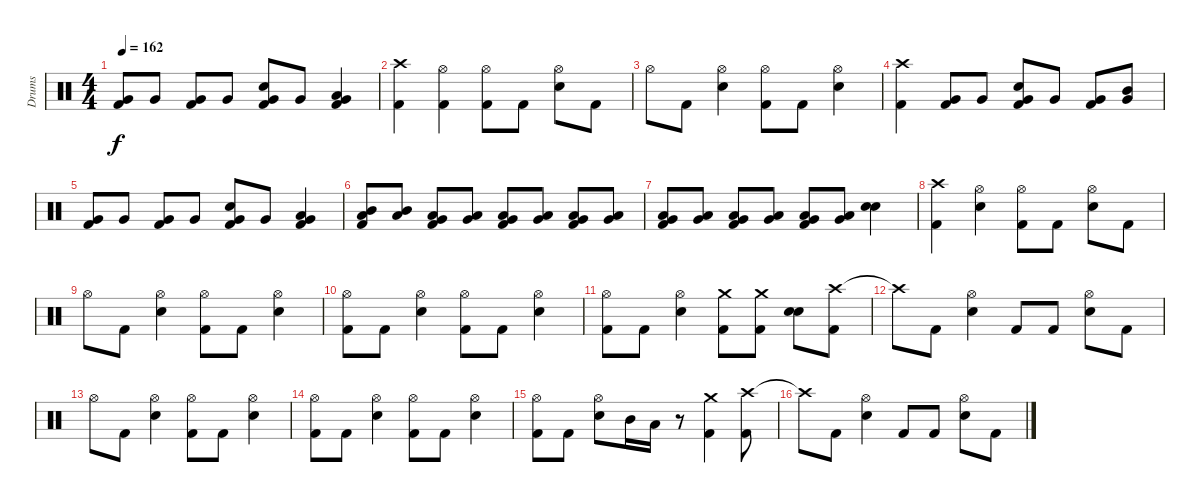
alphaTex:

\track ("Drums" "Drums") {instrument percussion}
\staff {score}
\articulation defaults
\ts (4 4)
\tempo 162
\clef neutral
\ks c
("Very Low Tom (hit)" "Kick (hit) 2").8{dy f} "Very Low Tom (hit)".8 ("Very Low Tom (hit)" "Kick (hit) 2").8 "Very Low Tom (hit)".8 ("Very Low Tom (hit)" "Snare (hit) 2" "Kick (hit) 2").8 "Very Low Tom (hit)".8 ("Low Tom (hit)" "Very Low Tom (hit)" "Kick (hit) 2").4 |
("Crash high (hit)" "Kick (hit) 2").4 ("Hi-Hat (open)" "Kick (hit) 2").4 ("Hi-Hat (open)" "Kick (hit) 2").8 "Kick (hit) 2".8 ("Hi-Hat (open)" "Snare (hit) 2").8 "Kick (hit) 2".8 |
"Hi-Hat (open)".8 "Kick (hit) 2".8 ("Hi-Hat (open)" "Snare (hit) 2").4 ("Hi-Hat (open)" "Kick (hit) 2").8 "Kick (hit) 2".8 ("Hi-Hat (open)" "Snare (hit) 2").4 |
("Crash high (hit)" "Kick (hit) 2").4 ("Very Low Tom (hit)" "Kick (hit) 2").8 "Very Low Tom (hit)".8 ("Very Low Tom (hit)" "Snare (hit) 2" "Kick (hit) 2").8 "Very Low Tom (hit)".8 ("Very Low Tom (hit)" "Kick (hit) 2").8 ("Mid Tom (hit)" "Very Low Tom (hit)").8 |
("Very Low Tom (hit)" "Kick (hit) 2").8 "Very Low Tom (hit)".8 ("Very Low Tom (hit)" "Kick (hit) 2").8 "Very Low Tom (hit)".8 ("Very Low Tom (hit)" "Snare (hit) 2" "Kick (hit) 2").8 "Very Low Tom (hit)".8 ("Low Tom (hit)" "Very Low Tom (hit)" "Kick (hit) 2").4 |
("Mid Tom (hit)" "Low Tom (hit)" "Kick (hit) 2").8 ("Mid Tom (hit)" "Low Tom (hit)").8 ("Low Tom (hit)" "Very Low Tom (hit)" "Kick (hit) 2").8 ("Low Tom (hit)" "Very Low Tom (hit)").8 ("Low Tom (hit)" "Very Low Tom (hit)" "Kick (hit) 2").8 ("Low Tom (hit)" "Very Low Tom (hit)").8 ("Low Tom (hit)" "Very Low Tom (hit)" "Kick (hit) 2").8 ("Low Tom (hit)" "Very Low Tom (hit)").8 |
("Low Tom (hit)" "Very Low Tom (hit)" "Kick (hit) 2").8 ("Low Tom (hit)" "Very Low Tom (hit)").8 ("Low Tom (hit)" "Very Low Tom (hit)" "Kick (hit) 2").8 ("Low Tom (hit)" "Very Low Tom (hit)").8 ("Low Tom (hit)" "Very Low Tom (hit)" "Kick (hit) 2").8 ("Low Tom (hit)" "Very Low Tom (hit)").8 ("Snare (hit) 2" "Snare (hit) 2").4 |
("Crash high (hit)" "Kick (hit) 2").4 ("Hi-Hat (open)" "Snare (hit) 2").4 ("Hi-Hat (open)" "Kick (hit) 2").8 "Kick (hit) 2".8 ("Hi-Hat (open)" "Snare (hit) 2").8 "Kick (hit) 2".8 |
"Hi-Hat (open)".8 "Kick (hit) 2".8 ("Hi-Hat (open)" "Snare (hit) 2").4 ("Hi-Hat (open)" "Kick (hit) 2").8 "Kick (hit) 2".8 ("Hi-Hat (open)" "Snare (hit) 2").4 |
("Hi-Hat (open)" "Kick (hit) 2").8 "Kick (hit) 2".8 ("Hi-Hat (open)" "Snare (hit) 2").4 ("Hi-Hat (open)" "Kick (hit) 2").8 "Kick (hit) 2".8 ("Hi-Hat (open)" "Snare (hit) 2").4 |
("Hi-Hat (open)" "Kick (hit) 2").8 "Kick (hit) 2".8 ("Hi-Hat (open)" "Snare (hit) 2").4 ("Crash medium (hit)" "Kick (hit) 2").8 ("Crash medium (hit)" "Kick (hit) 2").8 ("Snare (hit) 2" "Snare (hit) 2").8 ("Crash high (hit)" "Kick (hit) 2").8 |
"Crash high (hit)"{t}.8 "Kick (hit) 2".8 ("Hi-Hat (open)" "Snare (hit) 2").4 "Kick (hit) 2".8 "Kick (hit) 2".8 ("Hi-Hat (open)" "Snare (hit) 2").8 "Kick (hit) 2".8 |
"Hi-Hat (open)".8 "Kick (hit) 2".8 ("Hi-Hat (open)" "Snare (hit) 2").4 ("Hi-Hat (open)" "Kick (hit) 2").8 "Kick (hit) 2".8 ("Hi-Hat (open)" "Snare (hit) 2").4 |
("Hi-Hat (open)" "Kick (hit) 2").8 "Kick (hit) 2".8 ("Hi-Hat (open)" "Snare (hit) 2").4 ("Hi-Hat (open)" "Kick (hit) 2").8 "Kick (hit) 2".8 ("Hi-Hat (open)" "Snare (hit) 2").4 |
("Hi-Hat (open)" "Kick (hit) 2").8 "Kick (hit) 2".8 ("Hi-Hat (open)" "Snare (hit) 2").8 "Mid Tom (hit)".16 "Low Tom (hit)".16 r.8 ("Crash medium (hit)" "Kick (hit) 2").4 ("Crash high (hit)" "Kick (hit) 2").8 |
"Crash high (hit)"{t}.8 "Kick (hit) 2".8 ("Hi-Hat (open)" "Snare (hit) 2").4 "Kick (hit) 2".8 "Kick (hit) 2".8 ("Hi-Hat (open)" "Snare (hit) 2").8 "Kick (hit) 2".8
